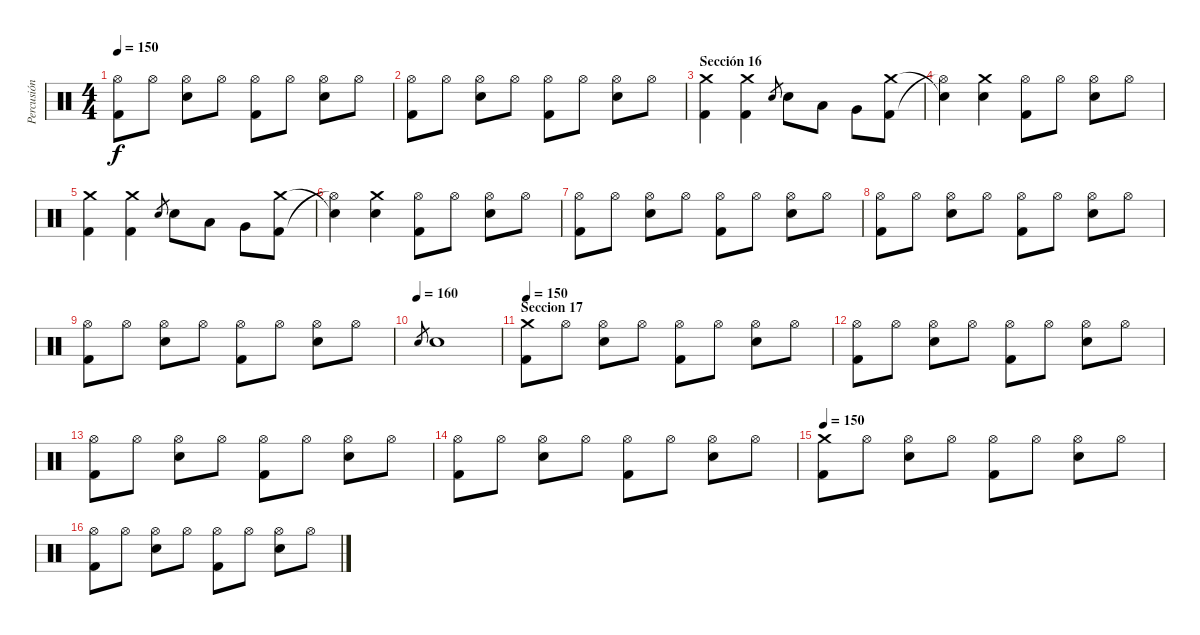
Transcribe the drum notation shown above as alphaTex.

\track ("Percusión" "Percusión") {instrument percussion}
\staff {score}
\articulation defaults
\ts (4 4)
\tempo 150
\clef neutral
\ks c
("Hi-Hat (open)" "Kick (hit) 2").8{dy f} "Hi-Hat (open)".8 ("Hi-Hat (open)" "Snare (hit) 2").8 "Hi-Hat (open)".8 ("Hi-Hat (open)" "Kick (hit) 2").8 "Hi-Hat (open)".8 ("Hi-Hat (open)" "Snare (hit) 2").8 "Hi-Hat (open)".8 |
("Hi-Hat (open)" "Kick (hit) 2").8 "Hi-Hat (open)".8 ("Hi-Hat (open)" "Snare (hit) 2").8 "Hi-Hat (open)".8 ("Hi-Hat (open)" "Kick (hit) 2").8 "Hi-Hat (open)".8 ("Hi-Hat (open)" "Snare (hit) 2").8 "Hi-Hat (open)".8 |
\section ("" "Sección 16")
("Crash medium (hit)" "Kick (hit) 2").4 ("Crash medium (hit)" "Kick (hit) 2").4 "Snare (hit) 2".8{gr} "Snare (hit) 2".8 "Low Tom (hit)".8 "Very Low Tom (hit)".8 ("Kick (hit) 2" "Crash medium (hit)").8 |
("Hi-Hat (open)"{t} "Snare (hit)"{t}).4 ("Crash medium (hit)" "Snare (hit) 2").4 ("Hi-Hat (open)" "Kick (hit) 2").8 "Hi-Hat (open)".8 ("Hi-Hat (open)" "Snare (hit) 2").8 "Hi-Hat (open)".8 |
("Crash medium (hit)" "Kick (hit) 2").4 ("Crash medium (hit)" "Kick (hit) 2").4 "Snare (hit) 2".8{gr} "Snare (hit) 2".8 "Low Tom (hit)".8 "Very Low Tom (hit)".8 ("Kick (hit) 2" "Crash medium (hit)").8 |
("Hi-Hat (open)"{t} "Snare (hit)"{t}).4 ("Crash medium (hit)" "Snare (hit) 2").4 ("Hi-Hat (open)" "Kick (hit) 2").8 "Hi-Hat (open)".8 ("Hi-Hat (open)" "Snare (hit) 2").8 "Hi-Hat (open)".8 |
("Hi-Hat (open)" "Kick (hit) 2").8 "Hi-Hat (open)".8 ("Hi-Hat (open)" "Snare (hit) 2").8 "Hi-Hat (open)".8 ("Hi-Hat (open)" "Kick (hit) 2").8 "Hi-Hat (open)".8 ("Hi-Hat (open)" "Snare (hit) 2").8 "Hi-Hat (open)".8 |
("Hi-Hat (open)" "Kick (hit) 2").8 "Hi-Hat (open)".8 ("Hi-Hat (open)" "Snare (hit) 2").8 "Hi-Hat (open)".8 ("Hi-Hat (open)" "Kick (hit) 2").8 "Hi-Hat (open)".8 ("Hi-Hat (open)" "Snare (hit) 2").8 "Hi-Hat (open)".8 |
("Hi-Hat (open)" "Kick (hit) 2").8 "Hi-Hat (open)".8 ("Hi-Hat (open)" "Snare (hit) 2").8 "Hi-Hat (open)".8 ("Hi-Hat (open)" "Kick (hit) 2").8 "Hi-Hat (open)".8 ("Hi-Hat (open)" "Snare (hit) 2").8 "Hi-Hat (open)".8 |
\tempo (160)
"Snare (hit) 2".8{gr} "Snare (hit) 2".1 |
\section ("" "Seccion 17")
\tempo 150
("Crash medium (hit)" "Kick (hit) 2").8 "Hi-Hat (open)".8 ("Hi-Hat (open)" "Snare (hit) 2").8 "Hi-Hat (open)".8 ("Hi-Hat (open)" "Kick (hit) 2").8 "Hi-Hat (open)".8 ("Hi-Hat (open)" "Snare (hit) 2").8 "Hi-Hat (open)".8 |
("Hi-Hat (open)" "Kick (hit) 2").8 "Hi-Hat (open)".8 ("Hi-Hat (open)" "Snare (hit) 2").8 "Hi-Hat (open)".8 ("Hi-Hat (open)" "Kick (hit) 2").8 "Hi-Hat (open)".8 ("Hi-Hat (open)" "Snare (hit) 2").8 "Hi-Hat (open)".8 |
("Hi-Hat (open)" "Kick (hit) 2").8 "Hi-Hat (open)".8 ("Hi-Hat (open)" "Snare (hit) 2").8 "Hi-Hat (open)".8 ("Hi-Hat (open)" "Kick (hit) 2").8 "Hi-Hat (open)".8 ("Hi-Hat (open)" "Snare (hit) 2").8 "Hi-Hat (open)".8 |
("Hi-Hat (open)" "Kick (hit) 2").8 "Hi-Hat (open)".8 ("Hi-Hat (open)" "Snare (hit) 2").8 "Hi-Hat (open)".8 ("Hi-Hat (open)" "Kick (hit) 2").8 "Hi-Hat (open)".8 ("Hi-Hat (open)" "Snare (hit) 2").8 "Hi-Hat (open)".8 |
\tempo 150
("Crash medium (hit)" "Kick (hit) 2").8 "Hi-Hat (open)".8 ("Hi-Hat (open)" "Snare (hit) 2").8 "Hi-Hat (open)".8 ("Hi-Hat (open)" "Kick (hit) 2").8 "Hi-Hat (open)".8 ("Hi-Hat (open)" "Snare (hit) 2").8 "Hi-Hat (open)".8 |
("Hi-Hat (open)" "Kick (hit) 2").8 "Hi-Hat (open)".8 ("Hi-Hat (open)" "Snare (hit) 2").8 "Hi-Hat (open)".8 ("Hi-Hat (open)" "Kick (hit) 2").8 "Hi-Hat (open)".8 ("Hi-Hat (open)" "Snare (hit) 2").8 "Hi-Hat (open)".8
